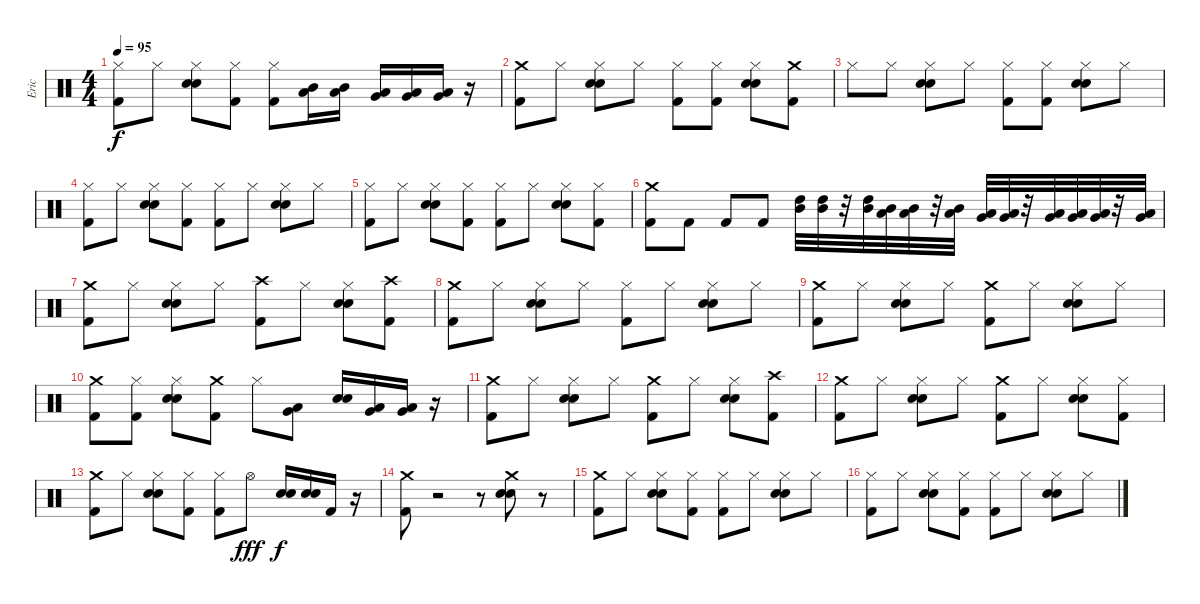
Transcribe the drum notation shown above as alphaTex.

\track ("Eric" "Eric") {instrument percussion}
\staff {score}
\articulation defaults
\ts (4 4)
\tempo 95
\clef neutral
\ks c
("Hi-Hat (closed)" "Kick (hit) 2").8{dy f} "Hi-Hat (closed)".8 ("Hi-Hat (closed)" "Electric Snare (hit)" "Snare (hit) 2").8 ("Hi-Hat (closed)" "Kick (hit) 2").8 ("Hi-Hat (closed)" "Kick (hit) 2").8 ("Mid Tom (hit)" "Low Tom (hit)").16 ("Mid Tom (hit)" "Low Tom (hit)").16 ("Low Tom (hit)" "Very Low Tom (hit)").16 ("Low Tom (hit)" "Very Low Tom (hit)").16 ("Very Low Tom (hit)" "Low Floor Tom (hit)").16 r.16 |
("Crash medium (hit)" "Kick (hit) 2").8 "Hi-Hat (closed)".8 ("Hi-Hat (closed)" "Electric Snare (hit)" "Snare (hit) 2").8 "Hi-Hat (closed)".8 ("Hi-Hat (closed)" "Kick (hit) 2").8 ("Kick (hit) 2" "Hi-Hat (closed)").8 ("Hi-Hat (closed)" "Electric Snare (hit)" "Snare (hit) 2").8 ("Kick (hit) 2" "Crash medium (hit)").8 |
"Hi-Hat (closed)".8 "Hi-Hat (closed)".8 ("Hi-Hat (closed)" "Electric Snare (hit)" "Snare (hit) 2").8 "Hi-Hat (closed)".8 ("Hi-Hat (closed)" "Kick (hit) 2").8 ("Kick (hit) 2" "Hi-Hat (closed)").8 ("Hi-Hat (closed)" "Electric Snare (hit)" "Snare (hit) 2").8 "Hi-Hat (closed)".8 |
("Hi-Hat (closed)" "Kick (hit) 2").8 "Hi-Hat (closed)".8 ("Hi-Hat (closed)" "Electric Snare (hit)" "Snare (hit) 2").8 ("Hi-Hat (closed)" "Kick (hit) 2").8 ("Hi-Hat (closed)" "Kick (hit) 2").8 "Hi-Hat (closed)".8 ("Hi-Hat (closed)" "Electric Snare (hit)" "Snare (hit) 2").8 "Hi-Hat (closed)".8 |
("Hi-Hat (closed)" "Kick (hit) 2").8 "Hi-Hat (closed)".8 ("Hi-Hat (closed)" "Electric Snare (hit)" "Snare (hit) 2").8 ("Hi-Hat (closed)" "Kick (hit) 2").8 ("Hi-Hat (closed)" "Kick (hit) 2").8 "Hi-Hat (closed)".8 ("Hi-Hat (closed)" "Electric Snare (hit)" "Snare (hit) 2").8 ("Kick (hit) 2" "Hi-Hat (closed)").8 |
("Crash medium (hit)" "Kick (hit) 2").8 "Kick (hit) 2".8 "Kick (hit) 2".8 "Kick (hit) 2".8 ("High Tom (hit)" "Mid Tom (hit)").32 ("High Tom (hit)" "Mid Tom (hit)").32 r.32 ("High Tom (hit)" "Mid Tom (hit)").32 ("Low Tom (hit)" "Mid Tom (hit)").32 ("Low Tom (hit)" "Mid Tom (hit)").32 r.32 ("Low Tom (hit)" "Mid Tom (hit)").32 ("Very Low Tom (hit)" "Low Tom (hit)").32 ("Very Low Tom (hit)" "Low Tom (hit)").32 r.32 ("Very Low Tom (hit)" "Low Tom (hit)").32 ("Low Tom (hit)" "Very Low Tom (hit)").32 ("Low Tom (hit)" "Very Low Tom (hit)").32 r.32 ("Low Tom (hit)" "Very Low Tom (hit)").32 |
("Crash medium (hit)" "Kick (hit) 2").8 "Hi-Hat (closed)".8 ("Hi-Hat (closed)" "Electric Snare (hit)" "Snare (hit) 2").8 "Hi-Hat (closed)".8 ("Crash high (hit)" "Kick (hit) 2").8 "Hi-Hat (closed)".8 ("Hi-Hat (closed)" "Electric Snare (hit)" "Snare (hit) 2").8 ("Kick (hit) 2" "Crash high (hit)").8 |
("Crash medium (hit)" "Kick (hit) 2").8 "Hi-Hat (closed)".8 ("Hi-Hat (closed)" "Electric Snare (hit)" "Snare (hit) 2").8 "Hi-Hat (closed)".8 ("Hi-Hat (closed)" "Kick (hit) 2").8 "Hi-Hat (closed)".8 ("Hi-Hat (closed)" "Electric Snare (hit)" "Snare (hit) 2").8 "Hi-Hat (closed)".8 |
("Crash medium (hit)" "Kick (hit) 2").8 "Hi-Hat (closed)".8 ("Hi-Hat (closed)" "Electric Snare (hit)" "Snare (hit) 2").8 "Hi-Hat (closed)".8 ("Crash medium (hit)" "Kick (hit) 2").8 "Hi-Hat (closed)".8 ("Hi-Hat (closed)" "Electric Snare (hit)" "Snare (hit) 2").8 "Hi-Hat (closed)".8 |
("Crash medium (hit)" "Kick (hit) 2").8 ("Kick (hit) 2" "Hi-Hat (closed)").8 ("Hi-Hat (closed)" "Electric Snare (hit)" "Snare (hit) 2").8 ("Crash medium (hit)" "Kick (hit) 2").8 "Hi-Hat (closed)".8 ("Low Tom (hit)" "Very Low Tom (hit)").8 ("Snare (hit) 2" "Electric Snare (hit)").16 ("Very Low Tom (hit)" "Low Tom (hit)").16 ("Very Low Tom (hit)" "Low Tom (hit)").16 r.16 |
("Crash medium (hit)" "Kick (hit) 2").8 "Hi-Hat (closed)".8 ("Hi-Hat (closed)" "Electric Snare (hit)" "Snare (hit) 2").8 "Hi-Hat (closed)".8 ("Crash medium (hit)" "Kick (hit) 2").8 "Hi-Hat (closed)".8 ("Hi-Hat (closed)" "Electric Snare (hit)" "Snare (hit) 2").8 ("Kick (hit) 2" "Crash high (hit)").8 |
("Crash medium (hit)" "Kick (hit) 2").8 "Hi-Hat (closed)".8 ("Hi-Hat (closed)" "Electric Snare (hit)" "Snare (hit) 2").8 "Hi-Hat (closed)".8 ("Crash medium (hit)" "Kick (hit) 2").8 "Hi-Hat (closed)".8 ("Hi-Hat (closed)" "Electric Snare (hit)" "Snare (hit) 2").8 ("Kick (hit) 2" "Hi-Hat (closed)").8 |
("Crash medium (hit)" "Kick (hit) 2").8 "Hi-Hat (closed)".8 ("Hi-Hat (closed)" "Electric Snare (hit)" "Snare (hit) 2").8 ("Hi-Hat (closed)" "Kick (hit) 2").8 ("Hi-Hat (closed)" "Kick (hit) 2").8 "Hi-Hat (open)".8{dy fff} ("Electric Snare (hit)" "Snare (hit) 2").16{dy f} ("Electric Snare (hit)" "Snare (hit) 2").16 "Kick (hit) 2".16 r.16 |
("Crash medium (hit)" "Kick (hit) 2").8 r.2 r.8 ("Snare (hit) 2" "Crash medium (hit)" "Electric Snare (hit)").8 r.8 |
("Crash medium (hit)" "Kick (hit) 2").8 "Hi-Hat (closed)".8 ("Hi-Hat (closed)" "Electric Snare (hit)" "Snare (hit) 2").8 ("Hi-Hat (closed)" "Kick (hit) 2").8 ("Hi-Hat (closed)" "Kick (hit) 2").8 "Hi-Hat (closed)".8 ("Hi-Hat (closed)" "Electric Snare (hit)" "Snare (hit) 2").8 "Hi-Hat (closed)".8 |
("Hi-Hat (closed)" "Kick (hit) 2").8 "Hi-Hat (closed)".8 ("Hi-Hat (closed)" "Electric Snare (hit)" "Snare (hit) 2").8 ("Hi-Hat (closed)" "Kick (hit) 2").8 ("Hi-Hat (closed)" "Kick (hit) 2").8 "Hi-Hat (closed)".8 ("Hi-Hat (closed)" "Electric Snare (hit)" "Snare (hit) 2").8 "Hi-Hat (closed)".8
